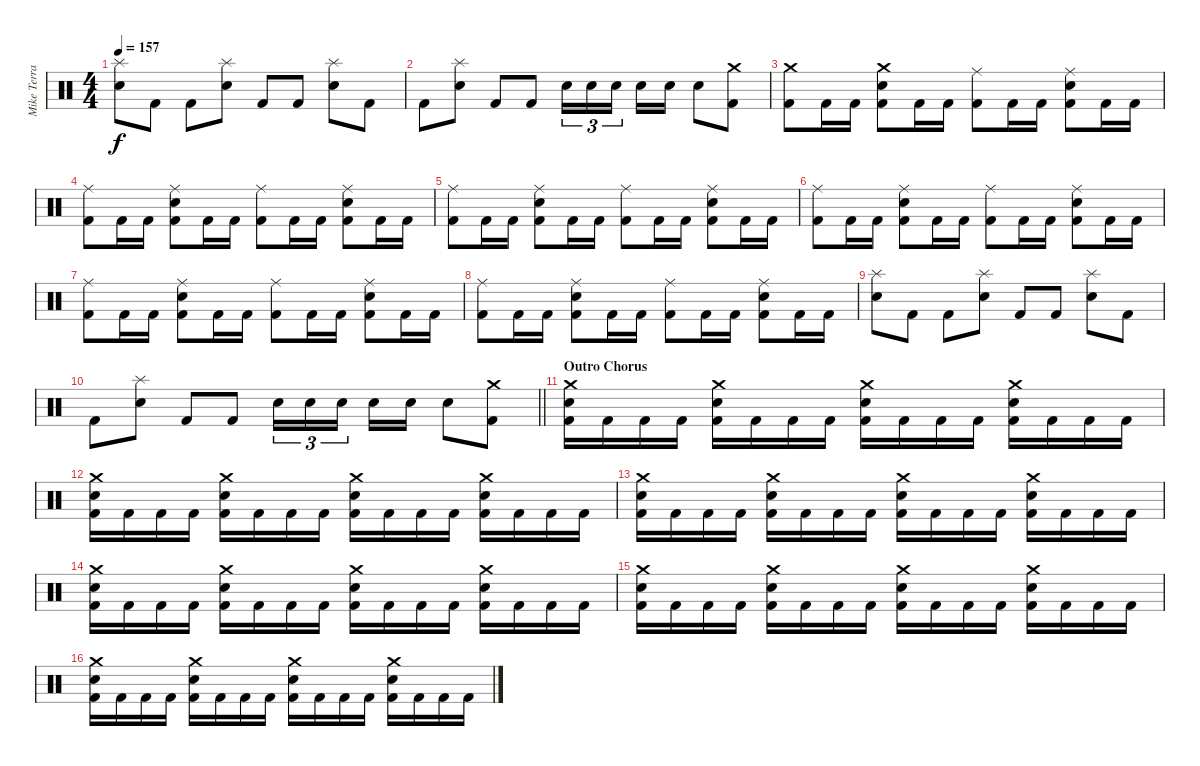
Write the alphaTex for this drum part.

\track ("Mike Terrana" "Mike Terra") {instrument percussion}
\staff {score}
\articulation defaults
\ts (4 4)
\tempo 157
\clef neutral
\ks c
("Splash (hit)" "Snare (hit) 2").8{dy f} "Kick (hit) 2".8 "Kick (hit) 2".8 ("Splash (hit)" "Snare (hit) 2").8 "Kick (hit) 2".8 "Kick (hit) 2".8 ("Splash (hit)" "Snare (hit) 2").8 "Kick (hit) 2".8 |
"Kick (hit) 2".8 ("Splash (hit)" "Snare (hit) 2").8 "Kick (hit) 2".8 "Kick (hit) 2".8 "Snare (hit) 2".16{tu (3 2)} "Snare (hit) 2".16{tu (3 2)} "Snare (hit) 2".16{tu (3 2) beam splitsecondary} "Snare (hit) 2".16 "Snare (hit) 2".16 "Snare (hit) 2".8 ("Crash medium (hit)" "Kick (hit) 2").8 |
("Crash medium (hit)" "Kick (hit) 2").8 "Kick (hit) 2".16 "Kick (hit) 2".16 ("Crash medium (hit)" "Snare (hit) 2" "Kick (hit) 2").8 "Kick (hit) 2".16 "Kick (hit) 2".16 ("Ride (middle)" "Kick (hit) 2").8 "Kick (hit) 2".16 "Kick (hit) 2".16 ("Ride (middle)" "Snare (hit) 2" "Kick (hit) 2").8 "Kick (hit) 2".16 "Kick (hit) 2".16 |
("Ride (middle)" "Kick (hit) 2").8 "Kick (hit) 2".16 "Kick (hit) 2".16 ("Ride (middle)" "Snare (hit) 2" "Kick (hit) 2").8 "Kick (hit) 2".16 "Kick (hit) 2".16 ("Ride (middle)" "Kick (hit) 2").8 "Kick (hit) 2".16 "Kick (hit) 2".16 ("Ride (middle)" "Snare (hit) 2" "Kick (hit) 2").8 "Kick (hit) 2".16 "Kick (hit) 2".16 |
("Ride (middle)" "Kick (hit) 2").8 "Kick (hit) 2".16 "Kick (hit) 2".16 ("Ride (middle)" "Snare (hit) 2" "Kick (hit) 2").8 "Kick (hit) 2".16 "Kick (hit) 2".16 ("Ride (middle)" "Kick (hit) 2").8 "Kick (hit) 2".16 "Kick (hit) 2".16 ("Ride (middle)" "Snare (hit) 2" "Kick (hit) 2").8 "Kick (hit) 2".16 "Kick (hit) 2".16 |
("Ride (middle)" "Kick (hit) 2").8 "Kick (hit) 2".16 "Kick (hit) 2".16 ("Ride (middle)" "Snare (hit) 2" "Kick (hit) 2").8 "Kick (hit) 2".16 "Kick (hit) 2".16 ("Ride (middle)" "Kick (hit) 2").8 "Kick (hit) 2".16 "Kick (hit) 2".16 ("Ride (middle)" "Snare (hit) 2" "Kick (hit) 2").8 "Kick (hit) 2".16 "Kick (hit) 2".16 |
("Ride (middle)" "Kick (hit) 2").8 "Kick (hit) 2".16 "Kick (hit) 2".16 ("Ride (middle)" "Snare (hit) 2" "Kick (hit) 2").8 "Kick (hit) 2".16 "Kick (hit) 2".16 ("Ride (middle)" "Kick (hit) 2").8 "Kick (hit) 2".16 "Kick (hit) 2".16 ("Ride (middle)" "Snare (hit) 2" "Kick (hit) 2").8 "Kick (hit) 2".16 "Kick (hit) 2".16 |
("Ride (middle)" "Kick (hit) 2").8 "Kick (hit) 2".16 "Kick (hit) 2".16 ("Ride (middle)" "Snare (hit) 2" "Kick (hit) 2").8 "Kick (hit) 2".16 "Kick (hit) 2".16 ("Ride (middle)" "Kick (hit) 2").8 "Kick (hit) 2".16 "Kick (hit) 2".16 ("Ride (middle)" "Snare (hit) 2" "Kick (hit) 2").8 "Kick (hit) 2".16 "Kick (hit) 2".16 |
("Splash (hit)" "Snare (hit) 2").8 "Kick (hit) 2".8 "Kick (hit) 2".8 ("Splash (hit)" "Snare (hit) 2").8 "Kick (hit) 2".8 "Kick (hit) 2".8 ("Splash (hit)" "Snare (hit) 2").8 "Kick (hit) 2".8 |
\barLineRight lightlight "Kick (hit) 2".8
("Splash (hit)" "Snare (hit) 2").8 "Kick (hit) 2".8 "Kick (hit) 2".8 "Snare (hit) 2".16{tu (3 2)} "Snare (hit) 2".16{tu (3 2)} "Snare (hit) 2".16{tu (3 2) beam splitsecondary} "Snare (hit) 2".16 "Snare (hit) 2".16 "Snare (hit) 2".8 ("Crash medium (hit)" "Kick (hit) 2").8 |
\section ("" "Outro Chorus")
("Crash medium (hit)" "Snare (hit) 2" "Kick (hit) 2").16 "Kick (hit) 2".16 "Kick (hit) 2".16 "Kick (hit) 2".16 ("Crash medium (hit)" "Snare (hit) 2" "Kick (hit) 2").16 "Kick (hit) 2".16 "Kick (hit) 2".16 "Kick (hit) 2".16 ("Crash medium (hit)" "Snare (hit) 2" "Kick (hit) 2").16 "Kick (hit) 2".16 "Kick (hit) 2".16 "Kick (hit) 2".16 ("Crash medium (hit)" "Snare (hit) 2" "Kick (hit) 2").16 "Kick (hit) 2".16 "Kick (hit) 2".16 "Kick (hit) 2".16 |
("Crash medium (hit)" "Snare (hit) 2" "Kick (hit) 2").16 "Kick (hit) 2".16 "Kick (hit) 2".16 "Kick (hit) 2".16 ("Crash medium (hit)" "Snare (hit) 2" "Kick (hit) 2").16 "Kick (hit) 2".16 "Kick (hit) 2".16 "Kick (hit) 2".16 ("Crash medium (hit)" "Snare (hit) 2" "Kick (hit) 2").16 "Kick (hit) 2".16 "Kick (hit) 2".16 "Kick (hit) 2".16 ("Crash medium (hit)" "Snare (hit) 2" "Kick (hit) 2").16 "Kick (hit) 2".16 "Kick (hit) 2".16 "Kick (hit) 2".16 |
("Crash medium (hit)" "Snare (hit) 2" "Kick (hit) 2").16 "Kick (hit) 2".16 "Kick (hit) 2".16 "Kick (hit) 2".16 ("Crash medium (hit)" "Snare (hit) 2" "Kick (hit) 2").16 "Kick (hit) 2".16 "Kick (hit) 2".16 "Kick (hit) 2".16 ("Crash medium (hit)" "Snare (hit) 2" "Kick (hit) 2").16 "Kick (hit) 2".16 "Kick (hit) 2".16 "Kick (hit) 2".16 ("Crash medium (hit)" "Snare (hit) 2" "Kick (hit) 2").16 "Kick (hit) 2".16 "Kick (hit) 2".16 "Kick (hit) 2".16 |
("Crash medium (hit)" "Snare (hit) 2" "Kick (hit) 2").16 "Kick (hit) 2".16 "Kick (hit) 2".16 "Kick (hit) 2".16 ("Crash medium (hit)" "Snare (hit) 2" "Kick (hit) 2").16 "Kick (hit) 2".16 "Kick (hit) 2".16 "Kick (hit) 2".16 ("Crash medium (hit)" "Snare (hit) 2" "Kick (hit) 2").16 "Kick (hit) 2".16 "Kick (hit) 2".16 "Kick (hit) 2".16 ("Crash medium (hit)" "Snare (hit) 2" "Kick (hit) 2").16 "Kick (hit) 2".16 "Kick (hit) 2".16 "Kick (hit) 2".16 |
("Crash medium (hit)" "Snare (hit) 2" "Kick (hit) 2").16 "Kick (hit) 2".16 "Kick (hit) 2".16 "Kick (hit) 2".16 ("Crash medium (hit)" "Snare (hit) 2" "Kick (hit) 2").16 "Kick (hit) 2".16 "Kick (hit) 2".16 "Kick (hit) 2".16 ("Crash medium (hit)" "Snare (hit) 2" "Kick (hit) 2").16 "Kick (hit) 2".16 "Kick (hit) 2".16 "Kick (hit) 2".16 ("Crash medium (hit)" "Snare (hit) 2" "Kick (hit) 2").16 "Kick (hit) 2".16 "Kick (hit) 2".16 "Kick (hit) 2".16 |
("Crash medium (hit)" "Snare (hit) 2" "Kick (hit) 2").16 "Kick (hit) 2".16 "Kick (hit) 2".16 "Kick (hit) 2".16 ("Crash medium (hit)" "Snare (hit) 2" "Kick (hit) 2").16 "Kick (hit) 2".16 "Kick (hit) 2".16 "Kick (hit) 2".16 ("Crash medium (hit)" "Snare (hit) 2" "Kick (hit) 2").16 "Kick (hit) 2".16 "Kick (hit) 2".16 "Kick (hit) 2".16 ("Crash medium (hit)" "Snare (hit) 2" "Kick (hit) 2").16 "Kick (hit) 2".16 "Kick (hit) 2".16 "Kick (hit) 2".16
